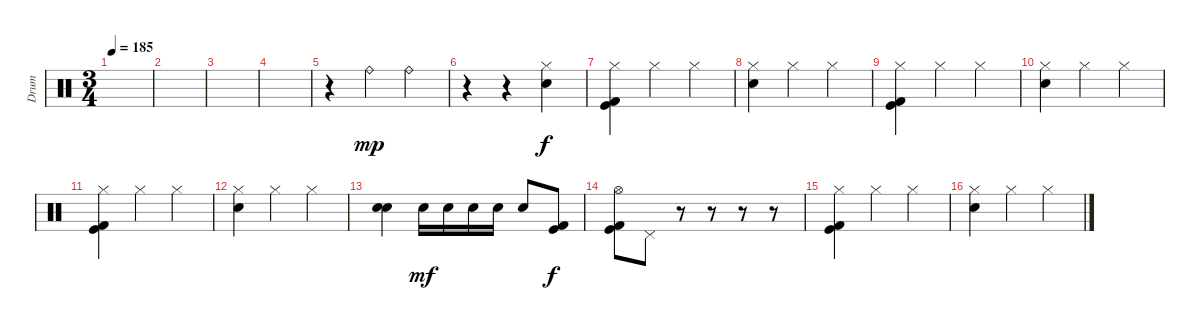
\track ("Drum" "Drum") {instrument percussion}
\staff {score}
\articulation defaults
\ts (3 4)
\tempo 185
\clef neutral
\ks c
|
|
|
|
r.4 "Ride (bell)".4{dy mp} "Ride (bell)".4 |
r.4 r.4 ("Hi-Hat (closed)" "Electric Snare (hit)").4{dy f} |
("Hi-Hat (closed)" "Kick (hit)" "Kick (hit) 2").4 "Hi-Hat (closed)".4 "Hi-Hat (closed)".4 |
("Hi-Hat (closed)" "Electric Snare (hit)").4 "Hi-Hat (closed)".4 "Hi-Hat (closed)".4 |
("Hi-Hat (closed)" "Kick (hit)" "Kick (hit) 2").4 "Hi-Hat (closed)".4 "Hi-Hat (closed)".4 |
("Hi-Hat (closed)" "Electric Snare (hit)").4 "Hi-Hat (closed)".4 "Hi-Hat (closed)".4 |
("Hi-Hat (closed)" "Kick (hit)" "Kick (hit) 2").4 "Hi-Hat (closed)".4 "Hi-Hat (closed)".4 |
("Hi-Hat (closed)" "Electric Snare (hit)").4 "Hi-Hat (closed)".4 "Hi-Hat (closed)".4 |
("Electric Snare (hit)" "Electric Snare (hit)").4{bu 240} "Electric Snare (hit)".16{dy mf} "Electric Snare (hit)".16 "Electric Snare (hit)".16 "Electric Snare (hit)".16 "Electric Snare (hit)".8 ("Kick (hit)" "Kick (hit) 2").8{dy f} |
("Hi-Hat (open)" "Kick (hit)" "Kick (hit) 2").8 "Pedal Hi-Hat (hit)".8 r.8 r.8 r.8 r.8 |
("Hi-Hat (closed)" "Kick (hit)" "Kick (hit) 2").4 "Hi-Hat (closed)".4 "Hi-Hat (closed)".4 |
("Hi-Hat (closed)" "Electric Snare (hit)").4 "Hi-Hat (closed)".4 "Hi-Hat (closed)".4
